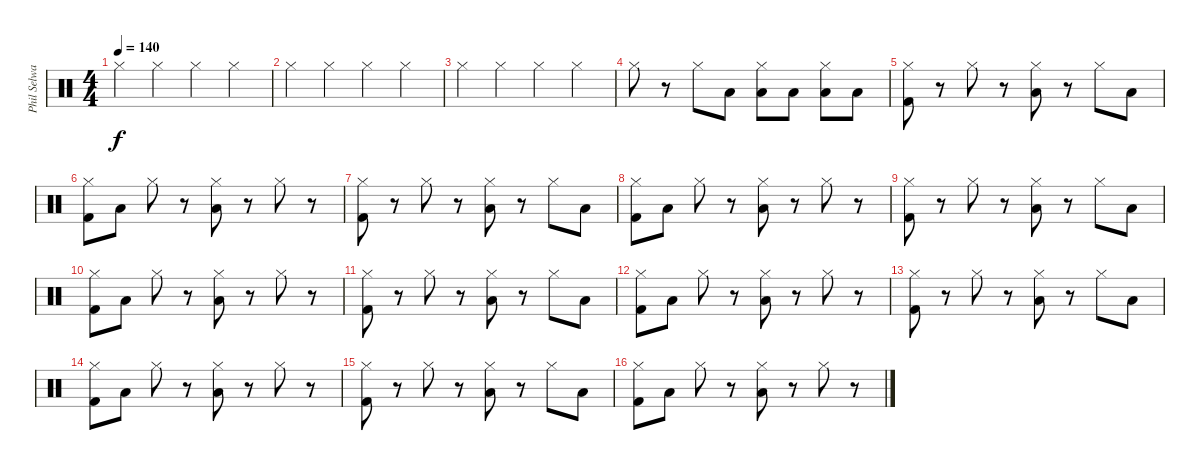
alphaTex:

\track ("Phil Selway" "Phil Selwa") {instrument percussion}
\staff {score}
\articulation defaults
\ts (4 4)
\tempo 140
\clef neutral
\ks c "Hi-Hat (closed)".4{dy f} "Hi-Hat (closed)".4 "Hi-Hat (closed)".4 "Hi-Hat (closed)".4
|
"Hi-Hat (closed)".4 "Hi-Hat (closed)".4 "Hi-Hat (closed)".4 "Hi-Hat (closed)".4 |
"Hi-Hat (closed)".4 "Hi-Hat (closed)".4 "Hi-Hat (closed)".4 "Hi-Hat (closed)".4 |
"Hi-Hat (closed)".8 r.8 "Hi-Hat (closed)".8 "Low Tom (hit)".8 ("Hi-Hat (closed)" "Low Tom (hit)").8 "Low Tom (hit)".8 ("Hi-Hat (closed)" "Low Tom (hit)").8 "Low Tom (hit)".8 |
("Hi-Hat (closed)" "Kick (hit) 2").8 r.8 "Hi-Hat (closed)".8 r.8 ("Hi-Hat (closed)" "Low Tom (hit)").8 r.8 "Hi-Hat (closed)".8 "Low Tom (hit)".8 |
("Hi-Hat (closed)" "Kick (hit) 2").8 "Low Tom (hit)".8 "Hi-Hat (closed)".8 r.8 ("Hi-Hat (closed)" "Low Tom (hit)").8 r.8 "Hi-Hat (closed)".8 r.8 |
("Hi-Hat (closed)" "Kick (hit) 2").8 r.8 "Hi-Hat (closed)".8 r.8 ("Hi-Hat (closed)" "Low Tom (hit)").8 r.8 "Hi-Hat (closed)".8 "Low Tom (hit)".8 |
("Hi-Hat (closed)" "Kick (hit) 2").8 "Low Tom (hit)".8 "Hi-Hat (closed)".8 r.8 ("Hi-Hat (closed)" "Low Tom (hit)").8 r.8 "Hi-Hat (closed)".8 r.8 |
("Hi-Hat (closed)" "Kick (hit) 2").8 r.8 "Hi-Hat (closed)".8 r.8 ("Hi-Hat (closed)" "Low Tom (hit)").8 r.8 "Hi-Hat (closed)".8 "Low Tom (hit)".8 |
("Hi-Hat (closed)" "Kick (hit) 2").8 "Low Tom (hit)".8 "Hi-Hat (closed)".8 r.8 ("Hi-Hat (closed)" "Low Tom (hit)").8 r.8 "Hi-Hat (closed)".8 r.8 |
("Hi-Hat (closed)" "Kick (hit) 2").8 r.8 "Hi-Hat (closed)".8 r.8 ("Hi-Hat (closed)" "Low Tom (hit)").8 r.8 "Hi-Hat (closed)".8 "Low Tom (hit)".8 |
("Hi-Hat (closed)" "Kick (hit) 2").8 "Low Tom (hit)".8 "Hi-Hat (closed)".8 r.8 ("Hi-Hat (closed)" "Low Tom (hit)").8 r.8 "Hi-Hat (closed)".8 r.8 |
("Hi-Hat (closed)" "Kick (hit) 2").8 r.8 "Hi-Hat (closed)".8 r.8 ("Hi-Hat (closed)" "Low Tom (hit)").8 r.8 "Hi-Hat (closed)".8 "Low Tom (hit)".8 |
("Hi-Hat (closed)" "Kick (hit) 2").8 "Low Tom (hit)".8 "Hi-Hat (closed)".8 r.8 ("Hi-Hat (closed)" "Low Tom (hit)").8 r.8 "Hi-Hat (closed)".8 r.8 |
("Hi-Hat (closed)" "Kick (hit) 2").8 r.8 "Hi-Hat (closed)".8 r.8 ("Hi-Hat (closed)" "Low Tom (hit)").8 r.8 "Hi-Hat (closed)".8 "Low Tom (hit)".8 |
("Hi-Hat (closed)" "Kick (hit) 2").8 "Low Tom (hit)".8 "Hi-Hat (closed)".8 r.8 ("Hi-Hat (closed)" "Low Tom (hit)").8 r.8 "Hi-Hat (closed)".8 r.8
